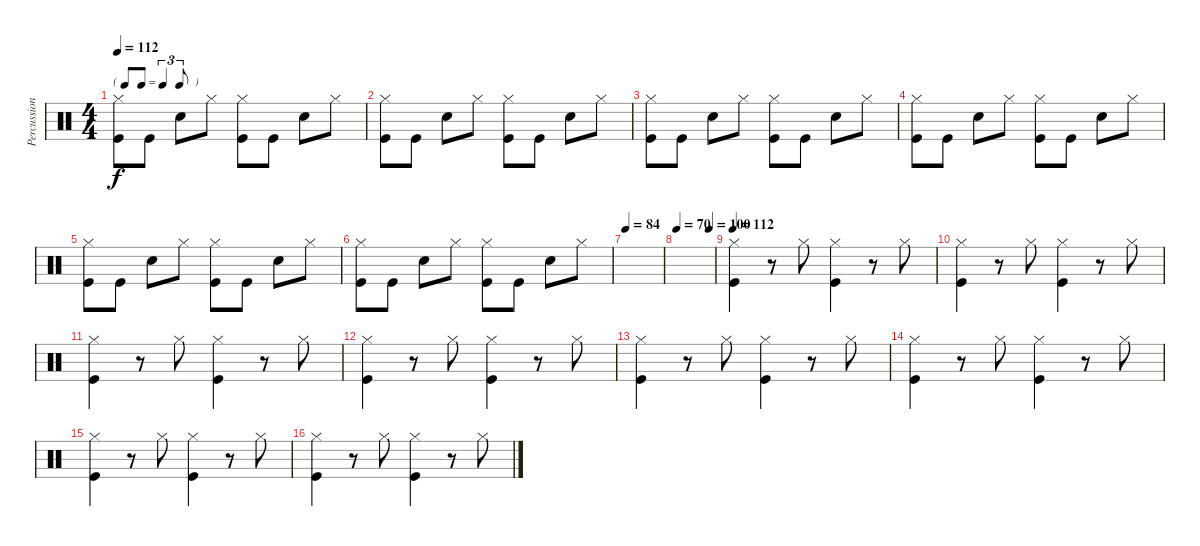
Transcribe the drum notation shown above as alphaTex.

\track ("Percussion" "Percussion") {instrument percussion}
\staff {score}
\articulation defaults
\ts (4 4)
\tf triplet8th
\tempo 112
\clef neutral
\ks c
("Hi-Hat (closed)" "Kick (hit)").8{dy f} "Kick (hit)".8 "Snare (hit) 2".8 "Hi-Hat (closed)".8 ("Hi-Hat (closed)" "Kick (hit)").8 "Kick (hit)".8 "Snare (hit) 2".8 "Hi-Hat (closed)".8 |
("Hi-Hat (closed)" "Kick (hit)").8 "Kick (hit)".8 "Snare (hit) 2".8 "Hi-Hat (closed)".8 ("Hi-Hat (closed)" "Kick (hit)").8 "Kick (hit)".8 "Snare (hit) 2".8 "Hi-Hat (closed)".8 |
("Hi-Hat (closed)" "Kick (hit)").8 "Kick (hit)".8 "Snare (hit) 2".8 "Hi-Hat (closed)".8 ("Hi-Hat (closed)" "Kick (hit)").8 "Kick (hit)".8 "Snare (hit) 2".8 "Hi-Hat (closed)".8 |
("Hi-Hat (closed)" "Kick (hit)").8 "Kick (hit)".8 "Snare (hit) 2".8 "Hi-Hat (closed)".8 ("Hi-Hat (closed)" "Kick (hit)").8 "Kick (hit)".8 "Snare (hit) 2".8 "Hi-Hat (closed)".8 |
("Hi-Hat (closed)" "Kick (hit)").8 "Kick (hit)".8 "Snare (hit) 2".8 "Hi-Hat (closed)".8 ("Hi-Hat (closed)" "Kick (hit)").8 "Kick (hit)".8 "Snare (hit) 2".8 "Hi-Hat (closed)".8 |
("Hi-Hat (closed)" "Kick (hit)").8 "Kick (hit)".8 "Snare (hit) 2".8 "Hi-Hat (closed)".8 ("Hi-Hat (closed)" "Kick (hit)").8 "Kick (hit)".8 "Snare (hit) 2".8 "Hi-Hat (closed)".8 |
\tempo 84
|
\tempo 70
\tempo (100 0.875)
|
\tempo 112
("Hi-Hat (closed)" "Kick (hit)").4 r.8 "Hi-Hat (closed)".8 ("Hi-Hat (closed)" "Kick (hit)").4 r.8 "Hi-Hat (closed)".8 |
("Hi-Hat (closed)" "Kick (hit)").4 r.8 "Hi-Hat (closed)".8 ("Hi-Hat (closed)" "Kick (hit)").4 r.8 "Hi-Hat (closed)".8 |
("Hi-Hat (closed)" "Kick (hit)").4 r.8 "Hi-Hat (closed)".8 ("Hi-Hat (closed)" "Kick (hit)").4 r.8 "Hi-Hat (closed)".8 |
("Hi-Hat (closed)" "Kick (hit)").4 r.8 "Hi-Hat (closed)".8 ("Hi-Hat (closed)" "Kick (hit)").4 r.8 "Hi-Hat (closed)".8 |
("Hi-Hat (closed)" "Kick (hit)").4 r.8 "Hi-Hat (closed)".8 ("Hi-Hat (closed)" "Kick (hit)").4 r.8 "Hi-Hat (closed)".8 |
("Hi-Hat (closed)" "Kick (hit)").4 r.8 "Hi-Hat (closed)".8 ("Hi-Hat (closed)" "Kick (hit)").4 r.8 "Hi-Hat (closed)".8 |
("Hi-Hat (closed)" "Kick (hit)").4 r.8 "Hi-Hat (closed)".8 ("Hi-Hat (closed)" "Kick (hit)").4 r.8 "Hi-Hat (closed)".8 |
("Hi-Hat (closed)" "Kick (hit)").4 r.8 "Hi-Hat (closed)".8 ("Hi-Hat (closed)" "Kick (hit)").4 r.8 "Hi-Hat (closed)".8
